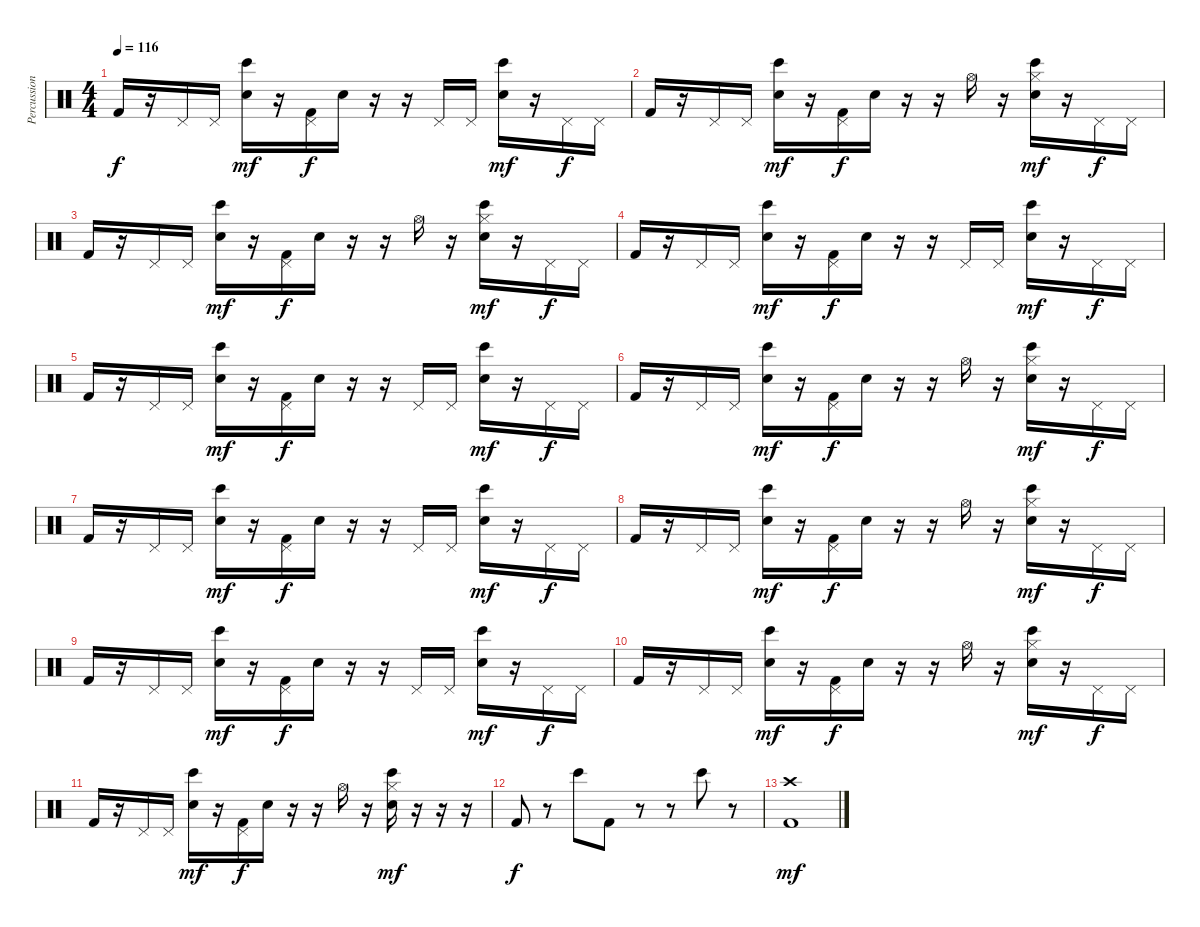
\track ("Percussion" "Percussion") {instrument percussion}
\staff {score}
\articulation defaults
\ts (4 4)
\tempo 116
\clef neutral
\ks c "Kick (hit) 2".16{dy f}
r.16 "Pedal Hi-Hat (hit)".16 "Pedal Hi-Hat (hit)".16 ("Bongo High (hit)" "Hand Clap (hit)").16{dy mf} r.16 ("Pedal Hi-Hat (hit)" "Kick (hit) 2").16{dy f} "Snare (hit)".16 r.16 r.16 "Pedal Hi-Hat (hit)".16 "Pedal Hi-Hat (hit)".16 ("Bongo High (hit)" "Hand Clap (hit)").16{dy mf} r.16 "Pedal Hi-Hat (hit)".16{dy f} "Pedal Hi-Hat (hit)".16 |
"Kick (hit) 2".16 r.16 "Pedal Hi-Hat (hit)".16 "Pedal Hi-Hat (hit)".16 ("Bongo High (hit)" "Hand Clap (hit)").16{dy mf} r.16 ("Pedal Hi-Hat (hit)" "Kick (hit) 2").16{dy f} "Snare (hit)".16 r.16 r.16 "Hi-Hat (open)".16 r.16 ("Hi-Hat (closed)" "Bongo High (hit)" "Hand Clap (hit)").16{dy mf} r.16 "Pedal Hi-Hat (hit)".16{dy f} "Pedal Hi-Hat (hit)".16 |
"Kick (hit) 2".16 r.16 "Pedal Hi-Hat (hit)".16 "Pedal Hi-Hat (hit)".16 ("Bongo High (hit)" "Hand Clap (hit)").16{dy mf} r.16 ("Pedal Hi-Hat (hit)" "Kick (hit) 2").16{dy f} "Snare (hit)".16 r.16 r.16 "Hi-Hat (open)".16 r.16 ("Hi-Hat (closed)" "Bongo High (hit)" "Hand Clap (hit)").16{dy mf} r.16 "Pedal Hi-Hat (hit)".16{dy f} "Pedal Hi-Hat (hit)".16 |
"Kick (hit) 2".16 r.16 "Pedal Hi-Hat (hit)".16 "Pedal Hi-Hat (hit)".16 ("Bongo High (hit)" "Hand Clap (hit)").16{dy mf} r.16 ("Pedal Hi-Hat (hit)" "Kick (hit) 2").16{dy f} "Snare (hit)".16 r.16 r.16 "Pedal Hi-Hat (hit)".16 "Pedal Hi-Hat (hit)".16 ("Bongo High (hit)" "Hand Clap (hit)").16{dy mf} r.16 "Pedal Hi-Hat (hit)".16{dy f} "Pedal Hi-Hat (hit)".16 |
"Kick (hit) 2".16 r.16 "Pedal Hi-Hat (hit)".16 "Pedal Hi-Hat (hit)".16 ("Bongo High (hit)" "Hand Clap (hit)").16{dy mf} r.16 ("Pedal Hi-Hat (hit)" "Kick (hit) 2").16{dy f} "Snare (hit)".16 r.16 r.16 "Pedal Hi-Hat (hit)".16 "Pedal Hi-Hat (hit)".16 ("Bongo High (hit)" "Hand Clap (hit)").16{dy mf} r.16 "Pedal Hi-Hat (hit)".16{dy f} "Pedal Hi-Hat (hit)".16 |
"Kick (hit) 2".16 r.16 "Pedal Hi-Hat (hit)".16 "Pedal Hi-Hat (hit)".16 ("Bongo High (hit)" "Hand Clap (hit)").16{dy mf} r.16 ("Pedal Hi-Hat (hit)" "Kick (hit) 2").16{dy f} "Snare (hit)".16 r.16 r.16 "Hi-Hat (open)".16 r.16 ("Hi-Hat (closed)" "Bongo High (hit)" "Hand Clap (hit)").16{dy mf} r.16 "Pedal Hi-Hat (hit)".16{dy f} "Pedal Hi-Hat (hit)".16 |
"Kick (hit) 2".16 r.16 "Pedal Hi-Hat (hit)".16 "Pedal Hi-Hat (hit)".16 ("Bongo High (hit)" "Hand Clap (hit)").16{dy mf} r.16 ("Pedal Hi-Hat (hit)" "Kick (hit) 2").16{dy f} "Snare (hit)".16 r.16 r.16 "Pedal Hi-Hat (hit)".16 "Pedal Hi-Hat (hit)".16 ("Bongo High (hit)" "Hand Clap (hit)").16{dy mf} r.16 "Pedal Hi-Hat (hit)".16{dy f} "Pedal Hi-Hat (hit)".16 |
"Kick (hit) 2".16 r.16 "Pedal Hi-Hat (hit)".16 "Pedal Hi-Hat (hit)".16 ("Bongo High (hit)" "Hand Clap (hit)").16{dy mf} r.16 ("Pedal Hi-Hat (hit)" "Kick (hit) 2").16{dy f} "Snare (hit)".16 r.16 r.16 "Hi-Hat (open)".16 r.16 ("Hi-Hat (closed)" "Bongo High (hit)" "Hand Clap (hit)").16{dy mf} r.16 "Pedal Hi-Hat (hit)".16{dy f} "Pedal Hi-Hat (hit)".16 |
"Kick (hit) 2".16 r.16 "Pedal Hi-Hat (hit)".16 "Pedal Hi-Hat (hit)".16 ("Bongo High (hit)" "Hand Clap (hit)").16{dy mf} r.16 ("Pedal Hi-Hat (hit)" "Kick (hit) 2").16{dy f} "Snare (hit)".16 r.16 r.16 "Pedal Hi-Hat (hit)".16 "Pedal Hi-Hat (hit)".16 ("Bongo High (hit)" "Hand Clap (hit)").16{dy mf} r.16 "Pedal Hi-Hat (hit)".16{dy f} "Pedal Hi-Hat (hit)".16 |
"Kick (hit) 2".16 r.16 "Pedal Hi-Hat (hit)".16 "Pedal Hi-Hat (hit)".16 ("Bongo High (hit)" "Hand Clap (hit)").16{dy mf} r.16 ("Pedal Hi-Hat (hit)" "Kick (hit) 2").16{dy f} "Snare (hit)".16 r.16 r.16 "Hi-Hat (open)".16 r.16 ("Hi-Hat (closed)" "Bongo High (hit)" "Hand Clap (hit)").16{dy mf} r.16 "Pedal Hi-Hat (hit)".16{dy f} "Pedal Hi-Hat (hit)".16 |
"Kick (hit) 2".16 r.16 "Pedal Hi-Hat (hit)".16 "Pedal Hi-Hat (hit)".16 ("Bongo High (hit)" "Hand Clap (hit)").16{dy mf} r.16 ("Pedal Hi-Hat (hit)" "Kick (hit) 2").16{dy f} "Snare (hit)".16 r.16 r.16 "Hi-Hat (open)".16 r.16 ("Hi-Hat (closed)" "Bongo High (hit)" "Hand Clap (hit)").16{dy mf} r.16 r.16 r.16 |
"Kick (hit) 2".8{dy f} r.8 "Bongo High (hit)".8 "Kick (hit) 2".8 r.8 r.8 "Bongo High (hit)".8 r.8 |
("Crash high (hit)" "Kick (hit) 2").1{dy mf}
